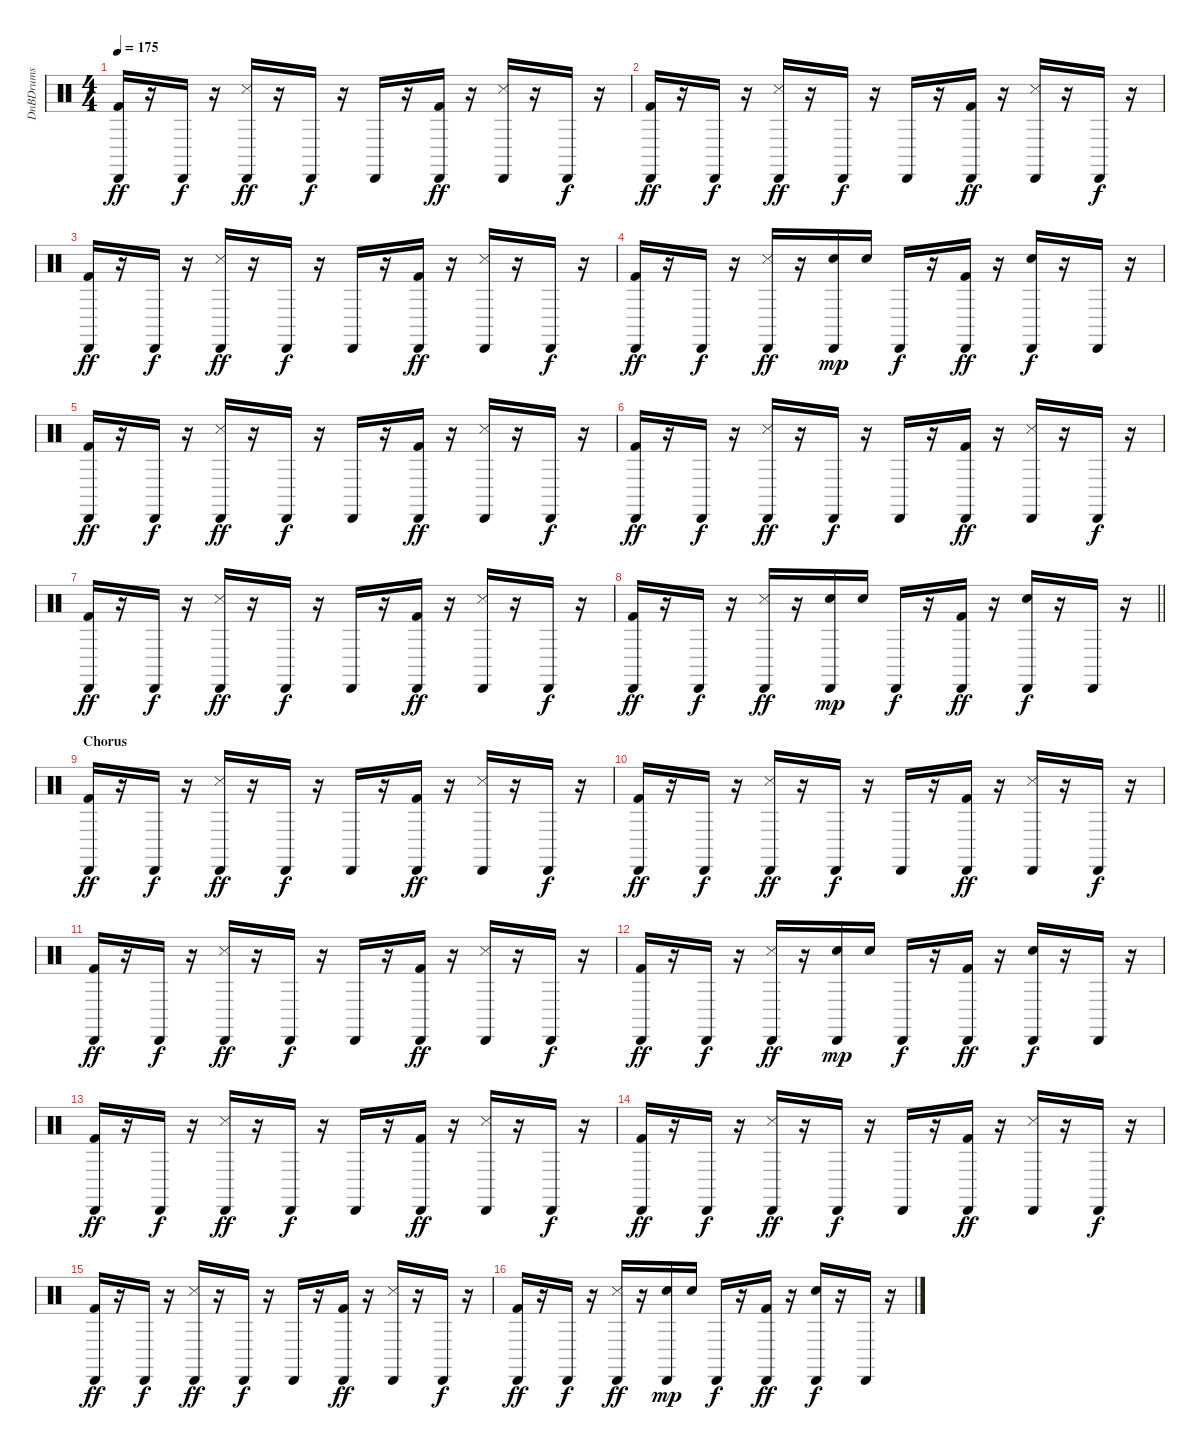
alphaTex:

\track ("DnBDrums" "DnBDrums") {instrument percussion}
\staff {score}
\articulation defaults
\ts (4 4)
\tempo 175
\clef neutral
\ks c
("Kick (hit) 2" "Cabasa (hit)").16{dy ff} r.16 "Cabasa (hit)".16{dy f} r.16 ("Snare (side stick) 3" "Cabasa (hit)").16{dy ff} r.16 "Cabasa (hit)".16{dy f} r.16 "Cabasa (hit)".16 r.16 ("Kick (hit) 2" "Cabasa (hit)").16{dy ff} r.16 ("Snare (side stick) 3" "Cabasa (hit)").16 r.16 "Cabasa (hit)".16{dy f} r.16 |
("Kick (hit) 2" "Cabasa (hit)").16{dy ff} r.16 "Cabasa (hit)".16{dy f} r.16 ("Snare (side stick) 3" "Cabasa (hit)").16{dy ff} r.16 "Cabasa (hit)".16{dy f} r.16 "Cabasa (hit)".16 r.16 ("Kick (hit) 2" "Cabasa (hit)").16{dy ff} r.16 ("Snare (side stick) 3" "Cabasa (hit)").16 r.16 "Cabasa (hit)".16{dy f} r.16 |
("Kick (hit) 2" "Cabasa (hit)").16{dy ff} r.16 "Cabasa (hit)".16{dy f} r.16 ("Snare (side stick) 3" "Cabasa (hit)").16{dy ff} r.16 "Cabasa (hit)".16{dy f} r.16 "Cabasa (hit)".16 r.16 ("Kick (hit) 2" "Cabasa (hit)").16{dy ff} r.16 ("Snare (side stick) 3" "Cabasa (hit)").16 r.16 "Cabasa (hit)".16{dy f} r.16 |
("Kick (hit) 2" "Cabasa (hit)").16{dy ff} r.16 "Cabasa (hit)".16{dy f} r.16 ("Snare (side stick) 3" "Cabasa (hit)").16{dy ff} r.16 ("Electric Snare (hit)" "Cabasa (hit)").16{dy mp} "Electric Snare (hit)".16 "Cabasa (hit)".16{dy f} r.16 ("Kick (hit) 2" "Cabasa (hit)").16{dy ff} r.16 ("Electric Snare (hit)" "Cabasa (hit)").16{dy f} r.16 "Cabasa (hit)".16 r.16 |
("Kick (hit) 2" "Cabasa (hit)").16{dy ff} r.16 "Cabasa (hit)".16{dy f} r.16 ("Snare (side stick) 3" "Cabasa (hit)").16{dy ff} r.16 "Cabasa (hit)".16{dy f} r.16 "Cabasa (hit)".16 r.16 ("Kick (hit) 2" "Cabasa (hit)").16{dy ff} r.16 ("Snare (side stick) 3" "Cabasa (hit)").16 r.16 "Cabasa (hit)".16{dy f} r.16 |
("Kick (hit) 2" "Cabasa (hit)").16{dy ff} r.16 "Cabasa (hit)".16{dy f} r.16 ("Snare (side stick) 3" "Cabasa (hit)").16{dy ff} r.16 "Cabasa (hit)".16{dy f} r.16 "Cabasa (hit)".16 r.16 ("Kick (hit) 2" "Cabasa (hit)").16{dy ff} r.16 ("Snare (side stick) 3" "Cabasa (hit)").16 r.16 "Cabasa (hit)".16{dy f} r.16 |
("Kick (hit) 2" "Cabasa (hit)").16{dy ff} r.16 "Cabasa (hit)".16{dy f} r.16 ("Snare (side stick) 3" "Cabasa (hit)").16{dy ff} r.16 "Cabasa (hit)".16{dy f} r.16 "Cabasa (hit)".16 r.16 ("Kick (hit) 2" "Cabasa (hit)").16{dy ff} r.16 ("Snare (side stick) 3" "Cabasa (hit)").16 r.16 "Cabasa (hit)".16{dy f} r.16 |
\barLineRight lightlight
("Kick (hit) 2" "Cabasa (hit)").16{dy ff} r.16 "Cabasa (hit)".16{dy f} r.16 ("Snare (side stick) 3" "Cabasa (hit)").16{dy ff} r.16 ("Electric Snare (hit)" "Cabasa (hit)").16{dy mp} "Electric Snare (hit)".16 "Cabasa (hit)".16{dy f} r.16 ("Kick (hit) 2" "Cabasa (hit)").16{dy ff} r.16 ("Electric Snare (hit)" "Cabasa (hit)").16{dy f} r.16 "Cabasa (hit)".16 r.16 |
\section ("" "Chorus")
("Kick (hit) 2" "Cabasa (hit)").16{dy ff} r.16 "Cabasa (hit)".16{dy f} r.16 ("Snare (side stick) 3" "Cabasa (hit)").16{dy ff} r.16 "Cabasa (hit)".16{dy f} r.16 "Cabasa (hit)".16 r.16 ("Kick (hit) 2" "Cabasa (hit)").16{dy ff} r.16 ("Snare (side stick) 3" "Cabasa (hit)").16 r.16 "Cabasa (hit)".16{dy f} r.16 |
("Kick (hit) 2" "Cabasa (hit)").16{dy ff} r.16 "Cabasa (hit)".16{dy f} r.16 ("Snare (side stick) 3" "Cabasa (hit)").16{dy ff} r.16 "Cabasa (hit)".16{dy f} r.16 "Cabasa (hit)".16 r.16 ("Kick (hit) 2" "Cabasa (hit)").16{dy ff} r.16 ("Snare (side stick) 3" "Cabasa (hit)").16 r.16 "Cabasa (hit)".16{dy f} r.16 |
("Kick (hit) 2" "Cabasa (hit)").16{dy ff} r.16 "Cabasa (hit)".16{dy f} r.16 ("Snare (side stick) 3" "Cabasa (hit)").16{dy ff} r.16 "Cabasa (hit)".16{dy f} r.16 "Cabasa (hit)".16 r.16 ("Kick (hit) 2" "Cabasa (hit)").16{dy ff} r.16 ("Snare (side stick) 3" "Cabasa (hit)").16 r.16 "Cabasa (hit)".16{dy f} r.16 |
("Kick (hit) 2" "Cabasa (hit)").16{dy ff} r.16 "Cabasa (hit)".16{dy f} r.16 ("Snare (side stick) 3" "Cabasa (hit)").16{dy ff} r.16 ("Electric Snare (hit)" "Cabasa (hit)").16{dy mp} "Electric Snare (hit)".16 "Cabasa (hit)".16{dy f} r.16 ("Kick (hit) 2" "Cabasa (hit)").16{dy ff} r.16 ("Electric Snare (hit)" "Cabasa (hit)").16{dy f} r.16 "Cabasa (hit)".16 r.16 |
("Kick (hit) 2" "Cabasa (hit)").16{dy ff} r.16 "Cabasa (hit)".16{dy f} r.16 ("Snare (side stick) 3" "Cabasa (hit)").16{dy ff} r.16 "Cabasa (hit)".16{dy f} r.16 "Cabasa (hit)".16 r.16 ("Kick (hit) 2" "Cabasa (hit)").16{dy ff} r.16 ("Snare (side stick) 3" "Cabasa (hit)").16 r.16 "Cabasa (hit)".16{dy f} r.16 |
("Kick (hit) 2" "Cabasa (hit)").16{dy ff} r.16 "Cabasa (hit)".16{dy f} r.16 ("Snare (side stick) 3" "Cabasa (hit)").16{dy ff} r.16 "Cabasa (hit)".16{dy f} r.16 "Cabasa (hit)".16 r.16 ("Kick (hit) 2" "Cabasa (hit)").16{dy ff} r.16 ("Snare (side stick) 3" "Cabasa (hit)").16 r.16 "Cabasa (hit)".16{dy f} r.16 |
("Kick (hit) 2" "Cabasa (hit)").16{dy ff} r.16 "Cabasa (hit)".16{dy f} r.16 ("Snare (side stick) 3" "Cabasa (hit)").16{dy ff} r.16 "Cabasa (hit)".16{dy f} r.16 "Cabasa (hit)".16 r.16 ("Kick (hit) 2" "Cabasa (hit)").16{dy ff} r.16 ("Snare (side stick) 3" "Cabasa (hit)").16 r.16 "Cabasa (hit)".16{dy f} r.16 |
("Kick (hit) 2" "Cabasa (hit)").16{dy ff} r.16 "Cabasa (hit)".16{dy f} r.16 ("Snare (side stick) 3" "Cabasa (hit)").16{dy ff} r.16 ("Electric Snare (hit)" "Cabasa (hit)").16{dy mp} "Electric Snare (hit)".16 "Cabasa (hit)".16{dy f} r.16 ("Kick (hit) 2" "Cabasa (hit)").16{dy ff} r.16 ("Electric Snare (hit)" "Cabasa (hit)").16{dy f} r.16 "Cabasa (hit)".16 r.16
